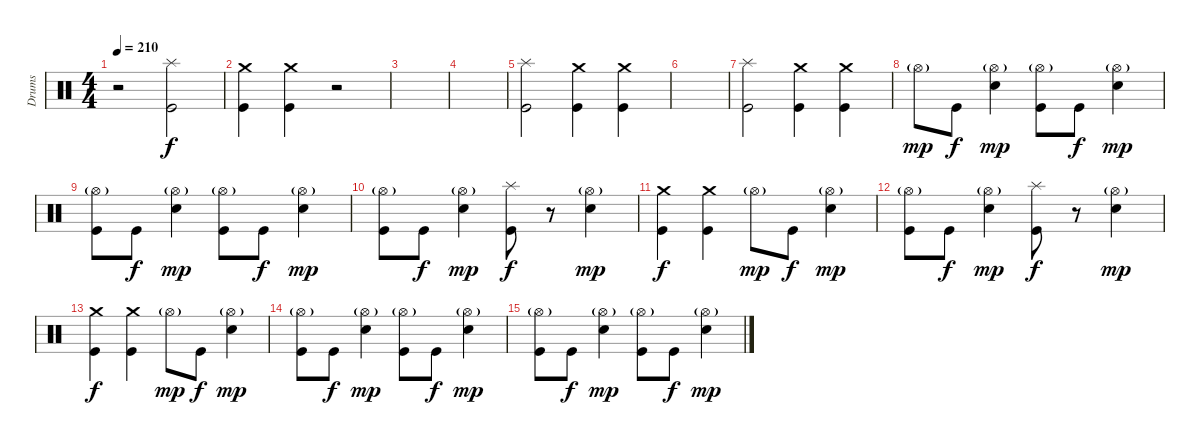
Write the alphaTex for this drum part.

\track ("Drums" "Drums") {instrument percussion}
\staff {score}
\articulation defaults
\ts (4 4)
\tempo 210
\clef neutral
\ks c
r.2{dy f} ("Splash (hit)" "Kick (hit)").2 |
("Crash medium (hit)" "Kick (hit)").4 ("Crash medium (hit)" "Kick (hit)").4 r.2 |
|
|
("Splash (hit)" "Kick (hit)").2 ("Crash medium (hit)" "Kick (hit)").4 ("Crash medium (hit)" "Kick (hit)").4 |
|
("Splash (hit)" "Kick (hit)").2 ("Crash medium (hit)" "Kick (hit)").4 ("Crash medium (hit)" "Kick (hit)").4 |
"Hi-Hat (open)"{g}.8{dy mp} "Kick (hit)".8{dy f} ("Hi-Hat (open)"{g} "Snare (hit) 2").4{dy mp} ("Hi-Hat (open)"{g} "Kick (hit)").8 "Kick (hit)".8{dy f} ("Hi-Hat (open)"{g} "Snare (hit) 2").4{dy mp} |
("Hi-Hat (open)"{g} "Kick (hit)").8 "Kick (hit)".8{dy f} ("Hi-Hat (open)"{g} "Snare (hit) 2").4{dy mp} ("Hi-Hat (open)"{g} "Kick (hit)").8 "Kick (hit)".8{dy f} ("Hi-Hat (open)"{g} "Snare (hit) 2").4{dy mp} |
("Hi-Hat (open)"{g} "Kick (hit)").8 "Kick (hit)".8{dy f} ("Hi-Hat (open)"{g} "Snare (hit) 2").4{dy mp} ("Splash (hit)" "Kick (hit)").8{dy f} r.8 ("Hi-Hat (open)"{g} "Snare (hit) 2").4{dy mp} |
("Crash medium (hit)" "Kick (hit)").4{dy f} ("Crash medium (hit)" "Kick (hit)").4 "Hi-Hat (open)"{g}.8{dy mp} "Kick (hit)".8{dy f} ("Hi-Hat (open)"{g} "Snare (hit) 2").4{dy mp} |
("Hi-Hat (open)"{g} "Kick (hit)").8 "Kick (hit)".8{dy f} ("Hi-Hat (open)"{g} "Snare (hit) 2").4{dy mp} ("Splash (hit)" "Kick (hit)").8{dy f} r.8 ("Hi-Hat (open)"{g} "Snare (hit) 2").4{dy mp} |
("Crash medium (hit)" "Kick (hit)").4{dy f} ("Crash medium (hit)" "Kick (hit)").4 "Hi-Hat (open)"{g}.8{dy mp} "Kick (hit)".8{dy f} ("Hi-Hat (open)"{g} "Snare (hit) 2").4{dy mp} |
("Hi-Hat (open)"{g} "Kick (hit)").8 "Kick (hit)".8{dy f} ("Hi-Hat (open)"{g} "Snare (hit) 2").4{dy mp} ("Hi-Hat (open)"{g} "Kick (hit)").8 "Kick (hit)".8{dy f} ("Hi-Hat (open)"{g} "Snare (hit) 2").4{dy mp} |
("Hi-Hat (open)"{g} "Kick (hit)").8 "Kick (hit)".8{dy f} ("Hi-Hat (open)"{g} "Snare (hit) 2").4{dy mp} ("Hi-Hat (open)"{g} "Kick (hit)").8 "Kick (hit)".8{dy f} ("Hi-Hat (open)"{g} "Snare (hit) 2").4{dy mp}
